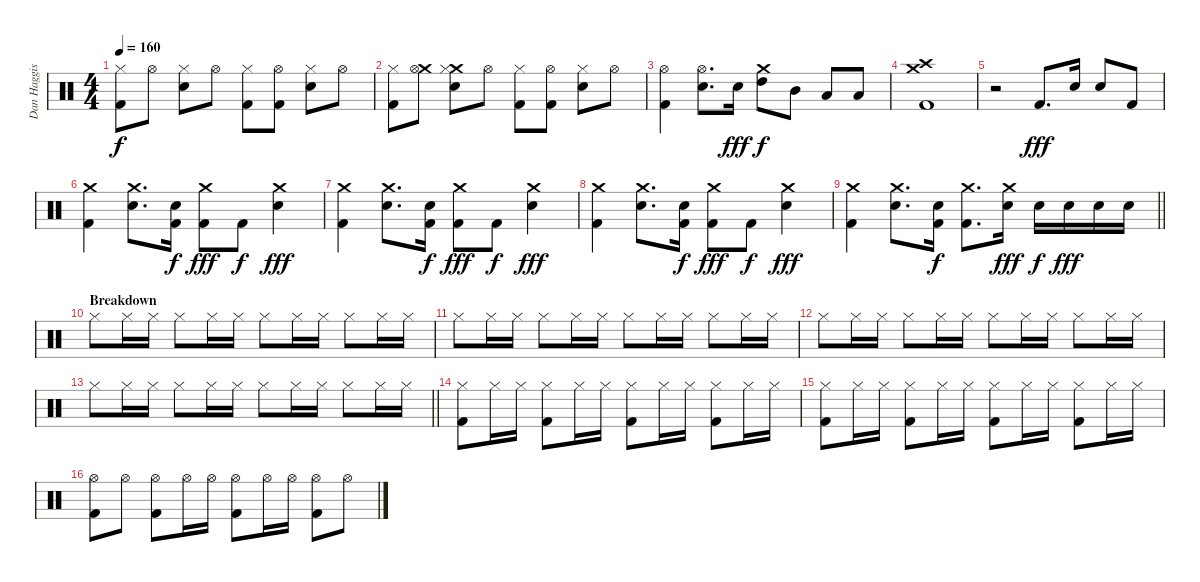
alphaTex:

\track ("Dan Haggis" "Dan Haggis") {instrument percussion}
\staff {score}
\articulation defaults
\ts (4 4)
\tempo 160
\clef neutral
\ks c
("Hi-Hat (closed)" "Kick (hit) 2").8{dy f} "Hi-Hat (open)".8 ("Hi-Hat (closed)" "Electric Snare (hit)").8 "Hi-Hat (open)".8 ("Hi-Hat (closed)" "Kick (hit) 2").8 ("Hi-Hat (open)" "Kick (hit) 2").8 ("Electric Snare (hit)" "Hi-Hat (closed)").8 "Hi-Hat (open)".8 |
("Hi-Hat (closed)" "Kick (hit) 2").8 ("Crash medium (hit)" "Hi-Hat (open)").8 ("Crash medium (hit)" "Hi-Hat (closed)" "Electric Snare (hit)").8 "Hi-Hat (open)".8 ("Hi-Hat (closed)" "Kick (hit) 2").8 ("Hi-Hat (open)" "Kick (hit) 2").8 ("Electric Snare (hit)" "Hi-Hat (closed)").8 "Hi-Hat (open)".8 |
("Hi-Hat (open)" "Kick (hit) 2").4 ("Hi-Hat (open)" "Electric Snare (hit)").8{d} "Electric Snare (hit)".16{dy fff} ("Crash medium (hit)" "High Tom (hit)").8{dy f} "Mid Tom (hit)".8 "Low Tom (hit)".8 "Low Tom (hit)".8 |
("Crash high (hit)" "Crash medium (hit)" "Kick (hit) 2").1 |
r.2 "Kick (hit) 2".8{d dy fff} "Electric Snare (hit)".16 "Electric Snare (hit)".8 "Kick (hit) 2".8 |
("Crash medium (hit)" "Kick (hit) 2").4 ("Crash medium (hit)" "Electric Snare (hit)").8{d} ("Kick (hit) 2" "Electric Snare (hit)").16{dy f} ("Crash medium (hit)" "Kick (hit) 2").8{dy fff} "Kick (hit) 2".8{dy f} ("Crash medium (hit)" "Electric Snare (hit)").4{dy fff} |
("Crash medium (hit)" "Kick (hit) 2").4 ("Crash medium (hit)" "Electric Snare (hit)").8{d} ("Kick (hit) 2" "Electric Snare (hit)").16{dy f} ("Crash medium (hit)" "Kick (hit) 2").8{dy fff} "Kick (hit) 2".8{dy f} ("Crash medium (hit)" "Electric Snare (hit)").4{dy fff} |
("Crash medium (hit)" "Kick (hit) 2").4 ("Crash medium (hit)" "Electric Snare (hit)").8{d} ("Kick (hit) 2" "Electric Snare (hit)").16{dy f} ("Crash medium (hit)" "Kick (hit) 2").8{dy fff} "Kick (hit) 2".8{dy f} ("Crash medium (hit)" "Electric Snare (hit)").4{dy fff} |
\barLineRight lightlight
("Crash medium (hit)" "Kick (hit) 2").4 ("Crash medium (hit)" "Electric Snare (hit)").8{d} ("Kick (hit) 2" "Electric Snare (hit)").16{dy f} ("Crash medium (hit)" "Kick (hit) 2").8{d} ("Crash medium (hit)" "Electric Snare (hit)").16{dy fff} "Electric Snare (hit)".16{dy f} "Electric Snare (hit)".16{dy fff} "Electric Snare (hit)".16 "Electric Snare (hit)".16 |
\section ("" "Breakdown")
"Hi-Hat (closed)".8{volume 7} "Hi-Hat (closed)".16 "Hi-Hat (closed)".16 "Hi-Hat (closed)".8 "Hi-Hat (closed)".16 "Hi-Hat (closed)".16 "Hi-Hat (closed)".8 "Hi-Hat (closed)".16 "Hi-Hat (closed)".16 "Hi-Hat (closed)".8 "Hi-Hat (closed)".16 "Hi-Hat (closed)".16 |
"Hi-Hat (closed)".8 "Hi-Hat (closed)".16 "Hi-Hat (closed)".16 "Hi-Hat (closed)".8 "Hi-Hat (closed)".16 "Hi-Hat (closed)".16 "Hi-Hat (closed)".8 "Hi-Hat (closed)".16 "Hi-Hat (closed)".16 "Hi-Hat (closed)".8 "Hi-Hat (closed)".16 "Hi-Hat (closed)".16 |
"Hi-Hat (closed)".8 "Hi-Hat (closed)".16 "Hi-Hat (closed)".16 "Hi-Hat (closed)".8 "Hi-Hat (closed)".16 "Hi-Hat (closed)".16 "Hi-Hat (closed)".8 "Hi-Hat (closed)".16 "Hi-Hat (closed)".16 "Hi-Hat (closed)".8 "Hi-Hat (closed)".16 "Hi-Hat (closed)".16 |
\barLineRight lightlight "Hi-Hat (closed)".8{volume 10} "Hi-Hat (closed)".16 "Hi-Hat (closed)".16 "Hi-Hat (closed)".8 "Hi-Hat (closed)".16 "Hi-Hat (closed)".16 "Hi-Hat (closed)".8 "Hi-Hat (closed)".16 "Hi-Hat (closed)".16 "Hi-Hat (closed)".8 "Hi-Hat (closed)".16 "Hi-Hat (closed)".16
|
("Kick (hit) 2" "Hi-Hat (closed)").8 "Hi-Hat (closed)".16 "Hi-Hat (closed)".16 ("Kick (hit) 2" "Hi-Hat (closed)").8 "Hi-Hat (closed)".16 "Hi-Hat (closed)".16 ("Kick (hit) 2" "Hi-Hat (closed)").8 "Hi-Hat (closed)".16 "Hi-Hat (closed)".16 ("Kick (hit) 2" "Hi-Hat (closed)").8 "Hi-Hat (closed)".16 "Hi-Hat (closed)".16 |
("Kick (hit) 2" "Hi-Hat (closed)").8 "Hi-Hat (closed)".16 "Hi-Hat (closed)".16 ("Kick (hit) 2" "Hi-Hat (closed)").8 "Hi-Hat (closed)".16 "Hi-Hat (closed)".16 ("Kick (hit) 2" "Hi-Hat (closed)").8 "Hi-Hat (closed)".16 "Hi-Hat (closed)".16 ("Kick (hit) 2" "Hi-Hat (closed)").8 "Hi-Hat (closed)".16 "Hi-Hat (closed)".16 |
("Kick (hit) 2" "Hi-Hat (open)").8{volume 7} "Hi-Hat (open)".8{volume 13} ("Kick (hit) 2" "Hi-Hat (open)").8 "Hi-Hat (open)".16 "Hi-Hat (open)".16 ("Kick (hit) 2" "Hi-Hat (open)").8 "Hi-Hat (open)".16 "Hi-Hat (open)".16 ("Kick (hit) 2" "Hi-Hat (open)").8 "Hi-Hat (open)".8
